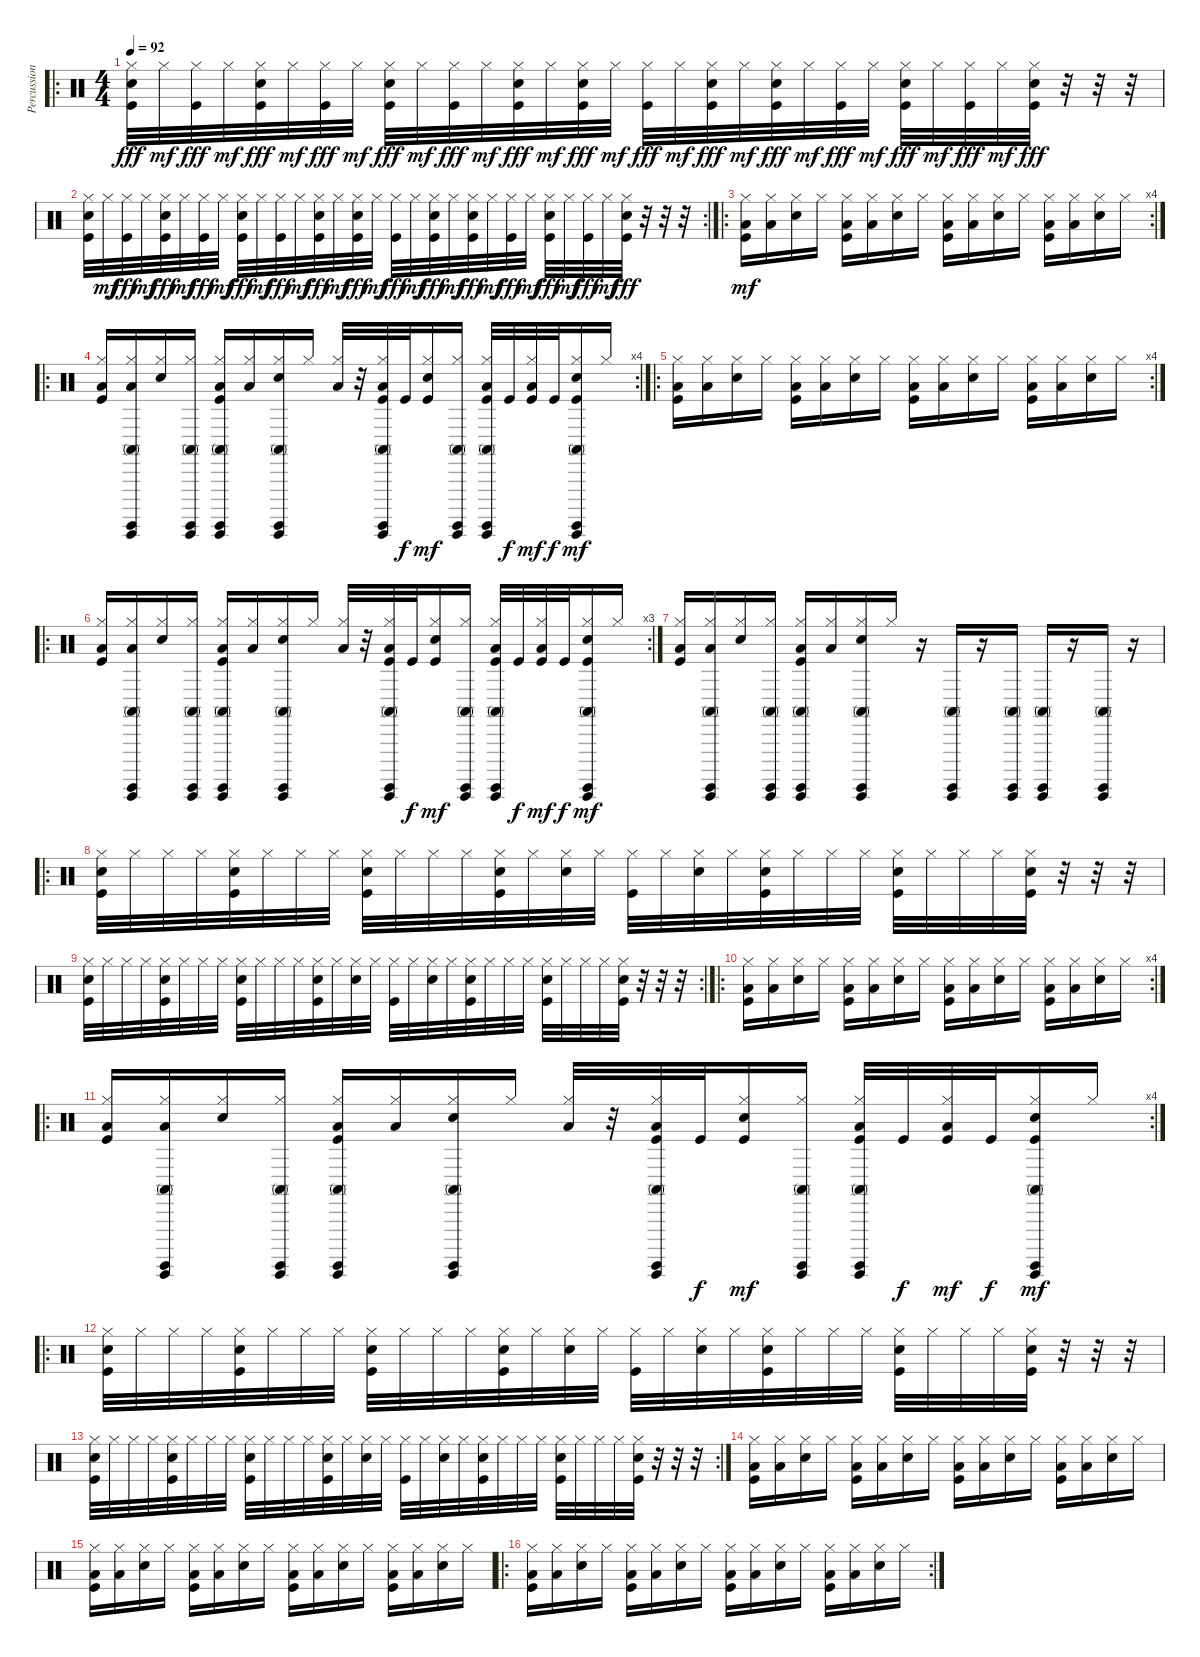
\track ("Percussion" "Percussion") {instrument percussion}
\staff {score}
\articulation defaults
\ro
\ts (4 4)
\tempo 92
\clef neutral
\ks c
("Hi-Hat (closed)" "Snare (hit) 2" "Kick (hit)").32{dy fff} "Hi-Hat (closed)".32{dy mf} ("Hi-Hat (closed)" "Kick (hit)").32{dy fff} "Hi-Hat (closed)".32{dy mf} ("Hi-Hat (closed)" "Snare (hit) 2" "Kick (hit)").32{dy fff} "Hi-Hat (closed)".32{dy mf} ("Hi-Hat (closed)" "Kick (hit)").32{dy fff} "Hi-Hat (closed)".32{dy mf} ("Hi-Hat (closed)" "Snare (hit) 2" "Kick (hit)").32{dy fff} "Hi-Hat (closed)".32{dy mf} ("Hi-Hat (closed)" "Kick (hit)").32{dy fff} "Hi-Hat (closed)".32{dy mf} ("Hi-Hat (closed)" "Snare (hit) 2" "Kick (hit)").32{dy fff} "Hi-Hat (closed)".32{dy mf} ("Hi-Hat (closed)" "Snare (hit) 2" "Kick (hit)").32{dy fff} "Hi-Hat (closed)".32{dy mf} ("Hi-Hat (closed)" "Kick (hit)").32{dy fff} "Hi-Hat (closed)".32{dy mf} ("Hi-Hat (closed)" "Snare (hit) 2" "Kick (hit)").32{dy fff} "Hi-Hat (closed)".32{dy mf} ("Hi-Hat (closed)" "Snare (hit) 2" "Kick (hit)").32{dy fff} "Hi-Hat (closed)".32{dy mf} ("Hi-Hat (closed)" "Kick (hit)").32{dy fff} "Hi-Hat (closed)".32{dy mf} ("Hi-Hat (closed)" "Snare (hit) 2" "Kick (hit)").32{dy fff} "Hi-Hat (closed)".32{dy mf} ("Hi-Hat (closed)" "Kick (hit)").32{dy fff} "Hi-Hat (closed)".32{dy mf} ("Hi-Hat (closed)" "Snare (hit) 2" "Kick (hit)").32{dy fff} r.32 r.32 r.32 |
\rc 2
("Hi-Hat (closed)" "Snare (hit) 2" "Kick (hit)").32 "Hi-Hat (closed)".32{dy mf} ("Hi-Hat (closed)" "Kick (hit)").32{dy fff} "Hi-Hat (closed)".32{dy mf} ("Hi-Hat (closed)" "Snare (hit) 2" "Kick (hit)").32{dy fff} "Hi-Hat (closed)".32{dy mf} ("Hi-Hat (closed)" "Kick (hit)").32{dy fff} "Hi-Hat (closed)".32{dy mf} ("Hi-Hat (closed)" "Snare (hit) 2" "Kick (hit)").32{dy fff} "Hi-Hat (closed)".32{dy mf} ("Hi-Hat (closed)" "Kick (hit)").32{dy fff} "Hi-Hat (closed)".32{dy mf} ("Hi-Hat (closed)" "Snare (hit) 2" "Kick (hit)").32{dy fff} "Hi-Hat (closed)".32{dy mf} ("Hi-Hat (closed)" "Snare (hit) 2" "Kick (hit)").32{dy fff} "Hi-Hat (closed)".32{dy mf} ("Hi-Hat (closed)" "Kick (hit)").32{dy fff} "Hi-Hat (closed)".32{dy mf} ("Hi-Hat (closed)" "Snare (hit) 2" "Kick (hit)").32{dy fff} "Hi-Hat (closed)".32{dy mf} ("Hi-Hat (closed)" "Snare (hit) 2" "Kick (hit)").32{dy fff} "Hi-Hat (closed)".32{dy mf} ("Hi-Hat (closed)" "Kick (hit)").32{dy fff} "Hi-Hat (closed)".32{dy mf} ("Hi-Hat (closed)" "Snare (hit) 2" "Kick (hit)").32{dy fff} "Hi-Hat (closed)".32{dy mf} ("Hi-Hat (closed)" "Kick (hit)").32{dy fff} "Hi-Hat (closed)".32{dy mf} ("Hi-Hat (closed)" "Snare (hit) 2" "Kick (hit)").32{dy fff} r.32 r.32 r.32 |
\ro
\rc 4
("Hi-Hat (closed)" "Low Tom (hit)" "Kick (hit)").16{dy mf} ("Hi-Hat (closed)" "Low Tom (hit)").16 ("Hi-Hat (closed)" "Snare (hit) 2").16 "Hi-Hat (closed)".16 ("Hi-Hat (closed)" "Low Tom (hit)" "Kick (hit)").16 ("Hi-Hat (closed)" "Low Tom (hit)").16 ("Hi-Hat (closed)" "Snare (hit) 2").16 "Hi-Hat (closed)".16 ("Hi-Hat (closed)" "Low Tom (hit)" "Kick (hit)").16 ("Hi-Hat (closed)" "Low Tom (hit)").16 ("Hi-Hat (closed)" "Snare (hit) 2").16 "Hi-Hat (closed)".16 ("Hi-Hat (closed)" "Low Tom (hit)" "Kick (hit)").16 ("Hi-Hat (closed)" "Low Tom (hit)").16 ("Hi-Hat (closed)" "Snare (hit) 2").16 "Hi-Hat (closed)".16 |
\ro
\rc 4
("Hi-Hat (closed)" "Low Tom (hit)" "Kick (hit)").16 ("Hi-Hat (closed)" "Guiro (hit)" "Surdo (hit)" "Low Tom (hit)" "Conga high (mute)").16 ("Hi-Hat (closed)" "Snare (hit) 2").16 ("Hi-Hat (closed)" "Guiro (hit)" "Surdo (hit)" "Conga high (mute)").16 ("Hi-Hat (closed)" "Guiro (hit)" "Surdo (hit)" "Low Tom (hit)" "Conga high (mute)" "Kick (hit)").16 ("Hi-Hat (closed)" "Low Tom (hit)").16 ("Hi-Hat (closed)" "Guiro (hit)" "Surdo (hit)" "Snare (hit) 2" "Conga high (mute)").16 "Hi-Hat (closed)".16 ("Hi-Hat (closed)" "Low Tom (hit)").32 r.32 ("Hi-Hat (closed)" "Guiro (hit)" "Surdo (hit)" "Low Tom (hit)" "Conga high (mute)" "Kick (hit)").32 "Kick (hit)".32{dy f} ("Hi-Hat (closed)" "Snare (hit) 2" "Kick (hit)").16{dy mf} ("Hi-Hat (closed)" "Guiro (hit)" "Surdo (hit)" "Conga high (mute)").16 ("Hi-Hat (closed)" "Guiro (hit)" "Surdo (hit)" "Low Tom (hit)" "Conga high (mute)" "Kick (hit)").32 "Kick (hit)".32{dy f} ("Hi-Hat (closed)" "Low Tom (hit)" "Kick (hit)").32{dy mf} "Kick (hit)".32{dy f} ("Hi-Hat (closed)" "Guiro (hit)" "Surdo (hit)" "Snare (hit) 2" "Conga high (mute)" "Kick (hit)").16{dy mf} "Hi-Hat (closed)".16 |
\ro
\rc 4
("Hi-Hat (closed)" "Low Tom (hit)" "Kick (hit)").16 ("Hi-Hat (closed)" "Low Tom (hit)").16 ("Hi-Hat (closed)" "Snare (hit) 2").16 "Hi-Hat (closed)".16 ("Hi-Hat (closed)" "Low Tom (hit)" "Kick (hit)").16 ("Hi-Hat (closed)" "Low Tom (hit)").16 ("Hi-Hat (closed)" "Snare (hit) 2").16 "Hi-Hat (closed)".16 ("Hi-Hat (closed)" "Low Tom (hit)" "Kick (hit)").16 ("Hi-Hat (closed)" "Low Tom (hit)").16 ("Hi-Hat (closed)" "Snare (hit) 2").16 "Hi-Hat (closed)".16 ("Hi-Hat (closed)" "Low Tom (hit)" "Kick (hit)").16 ("Hi-Hat (closed)" "Low Tom (hit)").16 ("Hi-Hat (closed)" "Snare (hit) 2").16 "Hi-Hat (closed)".16 |
\ro
\rc 3
("Hi-Hat (closed)" "Low Tom (hit)" "Kick (hit)").16 ("Hi-Hat (closed)" "Guiro (hit)" "Surdo (hit)" "Low Tom (hit)" "Conga high (mute)").16 ("Hi-Hat (closed)" "Snare (hit) 2").16 ("Hi-Hat (closed)" "Guiro (hit)" "Surdo (hit)" "Conga high (mute)").16 ("Hi-Hat (closed)" "Guiro (hit)" "Surdo (hit)" "Low Tom (hit)" "Conga high (mute)" "Kick (hit)").16 ("Hi-Hat (closed)" "Low Tom (hit)").16 ("Hi-Hat (closed)" "Guiro (hit)" "Surdo (hit)" "Snare (hit) 2" "Conga high (mute)").16 "Hi-Hat (closed)".16 ("Hi-Hat (closed)" "Low Tom (hit)").32 r.32 ("Hi-Hat (closed)" "Guiro (hit)" "Surdo (hit)" "Low Tom (hit)" "Conga high (mute)" "Kick (hit)").32 "Kick (hit)".32{dy f} ("Hi-Hat (closed)" "Snare (hit) 2" "Kick (hit)").16{dy mf} ("Hi-Hat (closed)" "Guiro (hit)" "Surdo (hit)" "Conga high (mute)").16 ("Hi-Hat (closed)" "Guiro (hit)" "Surdo (hit)" "Low Tom (hit)" "Conga high (mute)" "Kick (hit)").32 "Kick (hit)".32{dy f} ("Hi-Hat (closed)" "Low Tom (hit)" "Kick (hit)").32{dy mf} "Kick (hit)".32{dy f} ("Hi-Hat (closed)" "Guiro (hit)" "Surdo (hit)" "Snare (hit) 2" "Conga high (mute)" "Kick (hit)").16{dy mf} "Hi-Hat (closed)".16 |
("Hi-Hat (closed)" "Low Tom (hit)" "Kick (hit)").16 ("Hi-Hat (closed)" "Guiro (hit)" "Surdo (hit)" "Low Tom (hit)" "Conga high (mute)").16 ("Hi-Hat (closed)" "Snare (hit) 2").16 ("Hi-Hat (closed)" "Guiro (hit)" "Surdo (hit)" "Conga high (mute)").16 ("Hi-Hat (closed)" "Guiro (hit)" "Surdo (hit)" "Low Tom (hit)" "Conga high (mute)" "Kick (hit)").16 ("Hi-Hat (closed)" "Low Tom (hit)").16 ("Hi-Hat (closed)" "Guiro (hit)" "Surdo (hit)" "Snare (hit) 2" "Conga high (mute)").16 "Hi-Hat (closed)".16 r.16 ("Guiro (hit)" "Surdo (hit)" "Conga high (mute)").16 r.16 ("Guiro (hit)" "Surdo (hit)" "Conga high (mute)").16 ("Guiro (hit)" "Surdo (hit)" "Conga high (mute)").16 r.16 ("Guiro (hit)" "Surdo (hit)" "Conga high (mute)").16 r.16 |
\ro
("Hi-Hat (closed)" "Snare (hit) 2" "Kick (hit)").32 "Hi-Hat (closed)".32 "Hi-Hat (closed)".32 "Hi-Hat (closed)".32 ("Hi-Hat (closed)" "Snare (hit) 2" "Kick (hit)").32 "Hi-Hat (closed)".32 "Hi-Hat (closed)".32 "Hi-Hat (closed)".32 ("Hi-Hat (closed)" "Snare (hit) 2" "Kick (hit)").32 "Hi-Hat (closed)".32 "Hi-Hat (closed)".32 "Hi-Hat (closed)".32 ("Hi-Hat (closed)" "Snare (hit) 2" "Kick (hit)").32 "Hi-Hat (closed)".32 ("Hi-Hat (closed)" "Snare (hit) 2").32 "Hi-Hat (closed)".32 ("Hi-Hat (closed)" "Kick (hit)").32 "Hi-Hat (closed)".32 ("Hi-Hat (closed)" "Snare (hit) 2").32 "Hi-Hat (closed)".32 ("Hi-Hat (closed)" "Snare (hit) 2" "Kick (hit)").32 "Hi-Hat (closed)".32 "Hi-Hat (closed)".32 "Hi-Hat (closed)".32 ("Hi-Hat (closed)" "Snare (hit) 2" "Kick (hit)").32 "Hi-Hat (closed)".32 "Hi-Hat (closed)".32 "Hi-Hat (closed)".32 ("Hi-Hat (closed)" "Snare (hit) 2" "Kick (hit)").32 r.32 r.32 r.32 |
\rc 2
("Hi-Hat (closed)" "Snare (hit) 2" "Kick (hit)").32 "Hi-Hat (closed)".32 "Hi-Hat (closed)".32 "Hi-Hat (closed)".32 ("Hi-Hat (closed)" "Snare (hit) 2" "Kick (hit)").32 "Hi-Hat (closed)".32 "Hi-Hat (closed)".32 "Hi-Hat (closed)".32 ("Hi-Hat (closed)" "Snare (hit) 2" "Kick (hit)").32 "Hi-Hat (closed)".32 "Hi-Hat (closed)".32 "Hi-Hat (closed)".32 ("Hi-Hat (closed)" "Snare (hit) 2" "Kick (hit)").32 "Hi-Hat (closed)".32 ("Hi-Hat (closed)" "Snare (hit) 2").32 "Hi-Hat (closed)".32 ("Hi-Hat (closed)" "Kick (hit)").32 "Hi-Hat (closed)".32 ("Hi-Hat (closed)" "Snare (hit) 2").32 "Hi-Hat (closed)".32 ("Hi-Hat (closed)" "Snare (hit) 2" "Kick (hit)").32 "Hi-Hat (closed)".32 "Hi-Hat (closed)".32 "Hi-Hat (closed)".32 ("Hi-Hat (closed)" "Snare (hit) 2" "Kick (hit)").32 "Hi-Hat (closed)".32 "Hi-Hat (closed)".32 "Hi-Hat (closed)".32 ("Hi-Hat (closed)" "Snare (hit) 2" "Kick (hit)").32 r.32 r.32 r.32 |
\ro
\rc 4
("Hi-Hat (closed)" "Low Tom (hit)" "Kick (hit)").16 ("Hi-Hat (closed)" "Low Tom (hit)").16 ("Hi-Hat (closed)" "Snare (hit) 2").16 "Hi-Hat (closed)".16 ("Hi-Hat (closed)" "Low Tom (hit)" "Kick (hit)").16 ("Hi-Hat (closed)" "Low Tom (hit)").16 ("Hi-Hat (closed)" "Snare (hit) 2").16 "Hi-Hat (closed)".16 ("Hi-Hat (closed)" "Low Tom (hit)" "Kick (hit)").16 ("Hi-Hat (closed)" "Low Tom (hit)").16 ("Hi-Hat (closed)" "Snare (hit) 2").16 "Hi-Hat (closed)".16 ("Hi-Hat (closed)" "Low Tom (hit)" "Kick (hit)").16 ("Hi-Hat (closed)" "Low Tom (hit)").16 ("Hi-Hat (closed)" "Snare (hit) 2").16 "Hi-Hat (closed)".16 |
\ro
\rc 4
("Hi-Hat (closed)" "Low Tom (hit)" "Kick (hit)").16 ("Hi-Hat (closed)" "Guiro (hit)" "Surdo (hit)" "Low Tom (hit)" "Conga high (mute)").16 ("Hi-Hat (closed)" "Snare (hit) 2").16 ("Hi-Hat (closed)" "Guiro (hit)" "Surdo (hit)" "Conga high (mute)").16 ("Hi-Hat (closed)" "Guiro (hit)" "Surdo (hit)" "Low Tom (hit)" "Conga high (mute)" "Kick (hit)").16 ("Hi-Hat (closed)" "Low Tom (hit)").16 ("Hi-Hat (closed)" "Guiro (hit)" "Surdo (hit)" "Snare (hit) 2" "Conga high (mute)").16 "Hi-Hat (closed)".16 ("Hi-Hat (closed)" "Low Tom (hit)").32 r.32 ("Hi-Hat (closed)" "Guiro (hit)" "Surdo (hit)" "Low Tom (hit)" "Conga high (mute)" "Kick (hit)").32 "Kick (hit)".32{dy f} ("Hi-Hat (closed)" "Snare (hit) 2" "Kick (hit)").16{dy mf} ("Hi-Hat (closed)" "Guiro (hit)" "Surdo (hit)" "Conga high (mute)").16 ("Hi-Hat (closed)" "Guiro (hit)" "Surdo (hit)" "Low Tom (hit)" "Conga high (mute)" "Kick (hit)").32 "Kick (hit)".32{dy f} ("Hi-Hat (closed)" "Low Tom (hit)" "Kick (hit)").32{dy mf} "Kick (hit)".32{dy f} ("Hi-Hat (closed)" "Guiro (hit)" "Surdo (hit)" "Snare (hit) 2" "Conga high (mute)" "Kick (hit)").16{dy mf} "Hi-Hat (closed)".16 |
\ro
("Hi-Hat (closed)" "Snare (hit) 2" "Kick (hit)").32 "Hi-Hat (closed)".32 "Hi-Hat (closed)".32 "Hi-Hat (closed)".32 ("Hi-Hat (closed)" "Snare (hit) 2" "Kick (hit)").32 "Hi-Hat (closed)".32 "Hi-Hat (closed)".32 "Hi-Hat (closed)".32 ("Hi-Hat (closed)" "Snare (hit) 2" "Kick (hit)").32 "Hi-Hat (closed)".32 "Hi-Hat (closed)".32 "Hi-Hat (closed)".32 ("Hi-Hat (closed)" "Snare (hit) 2" "Kick (hit)").32 "Hi-Hat (closed)".32 ("Hi-Hat (closed)" "Snare (hit) 2").32 "Hi-Hat (closed)".32 ("Hi-Hat (closed)" "Kick (hit)").32 "Hi-Hat (closed)".32 ("Hi-Hat (closed)" "Snare (hit) 2").32 "Hi-Hat (closed)".32 ("Hi-Hat (closed)" "Snare (hit) 2" "Kick (hit)").32 "Hi-Hat (closed)".32 "Hi-Hat (closed)".32 "Hi-Hat (closed)".32 ("Hi-Hat (closed)" "Snare (hit) 2" "Kick (hit)").32 "Hi-Hat (closed)".32 "Hi-Hat (closed)".32 "Hi-Hat (closed)".32 ("Hi-Hat (closed)" "Snare (hit) 2" "Kick (hit)").32 r.32 r.32 r.32 |
\rc 2
("Hi-Hat (closed)" "Snare (hit) 2" "Kick (hit)").32 "Hi-Hat (closed)".32 "Hi-Hat (closed)".32 "Hi-Hat (closed)".32 ("Hi-Hat (closed)" "Snare (hit) 2" "Kick (hit)").32 "Hi-Hat (closed)".32 "Hi-Hat (closed)".32 "Hi-Hat (closed)".32 ("Hi-Hat (closed)" "Snare (hit) 2" "Kick (hit)").32 "Hi-Hat (closed)".32 "Hi-Hat (closed)".32 "Hi-Hat (closed)".32 ("Hi-Hat (closed)" "Snare (hit) 2" "Kick (hit)").32 "Hi-Hat (closed)".32 ("Hi-Hat (closed)" "Snare (hit) 2").32 "Hi-Hat (closed)".32 ("Hi-Hat (closed)" "Kick (hit)").32 "Hi-Hat (closed)".32 ("Hi-Hat (closed)" "Snare (hit) 2").32 "Hi-Hat (closed)".32 ("Hi-Hat (closed)" "Snare (hit) 2" "Kick (hit)").32 "Hi-Hat (closed)".32 "Hi-Hat (closed)".32 "Hi-Hat (closed)".32 ("Hi-Hat (closed)" "Snare (hit) 2" "Kick (hit)").32 "Hi-Hat (closed)".32 "Hi-Hat (closed)".32 "Hi-Hat (closed)".32 ("Hi-Hat (closed)" "Snare (hit) 2" "Kick (hit)").32 r.32 r.32 r.32 |
("Hi-Hat (closed)" "Low Tom (hit)" "Kick (hit)").16 ("Hi-Hat (closed)" "Low Tom (hit)").16 ("Hi-Hat (closed)" "Snare (hit) 2").16 "Hi-Hat (closed)".16 ("Hi-Hat (closed)" "Low Tom (hit)" "Kick (hit)").16 ("Hi-Hat (closed)" "Low Tom (hit)").16 ("Hi-Hat (closed)" "Snare (hit) 2").16 "Hi-Hat (closed)".16 ("Hi-Hat (closed)" "Low Tom (hit)" "Kick (hit)").16 ("Hi-Hat (closed)" "Low Tom (hit)").16 ("Hi-Hat (closed)" "Snare (hit) 2").16 "Hi-Hat (closed)".16 ("Hi-Hat (closed)" "Low Tom (hit)" "Kick (hit)").16 ("Hi-Hat (closed)" "Low Tom (hit)").16 ("Hi-Hat (closed)" "Snare (hit) 2").16 "Hi-Hat (closed)".16 |
("Hi-Hat (closed)" "Low Tom (hit)" "Kick (hit)").16 ("Hi-Hat (closed)" "Low Tom (hit)").16 ("Hi-Hat (closed)" "Snare (hit) 2").16 "Hi-Hat (closed)".16 ("Hi-Hat (closed)" "Low Tom (hit)" "Kick (hit)").16 ("Hi-Hat (closed)" "Low Tom (hit)").16 ("Hi-Hat (closed)" "Snare (hit) 2").16 "Hi-Hat (closed)".16 ("Hi-Hat (closed)" "Low Tom (hit)" "Kick (hit)").16 ("Hi-Hat (closed)" "Low Tom (hit)").16 ("Hi-Hat (closed)" "Snare (hit) 2").16 "Hi-Hat (closed)".16 ("Hi-Hat (closed)" "Low Tom (hit)" "Kick (hit)").16 ("Hi-Hat (closed)" "Low Tom (hit)").16 ("Hi-Hat (closed)" "Snare (hit) 2").16 "Hi-Hat (closed)".16 |
\ro
\rc 2
("Hi-Hat (closed)" "Low Tom (hit)" "Kick (hit)").16 ("Hi-Hat (closed)" "Low Tom (hit)").16 ("Hi-Hat (closed)" "Snare (hit) 2").16 "Hi-Hat (closed)".16 ("Hi-Hat (closed)" "Low Tom (hit)" "Kick (hit)").16 ("Hi-Hat (closed)" "Low Tom (hit)").16 ("Hi-Hat (closed)" "Snare (hit) 2").16 "Hi-Hat (closed)".16 ("Hi-Hat (closed)" "Low Tom (hit)" "Kick (hit)").16 ("Hi-Hat (closed)" "Low Tom (hit)").16 ("Hi-Hat (closed)" "Snare (hit) 2").16 "Hi-Hat (closed)".16 ("Hi-Hat (closed)" "Low Tom (hit)" "Kick (hit)").16 ("Hi-Hat (closed)" "Low Tom (hit)").16 ("Hi-Hat (closed)" "Snare (hit) 2").16 "Hi-Hat (closed)".16
